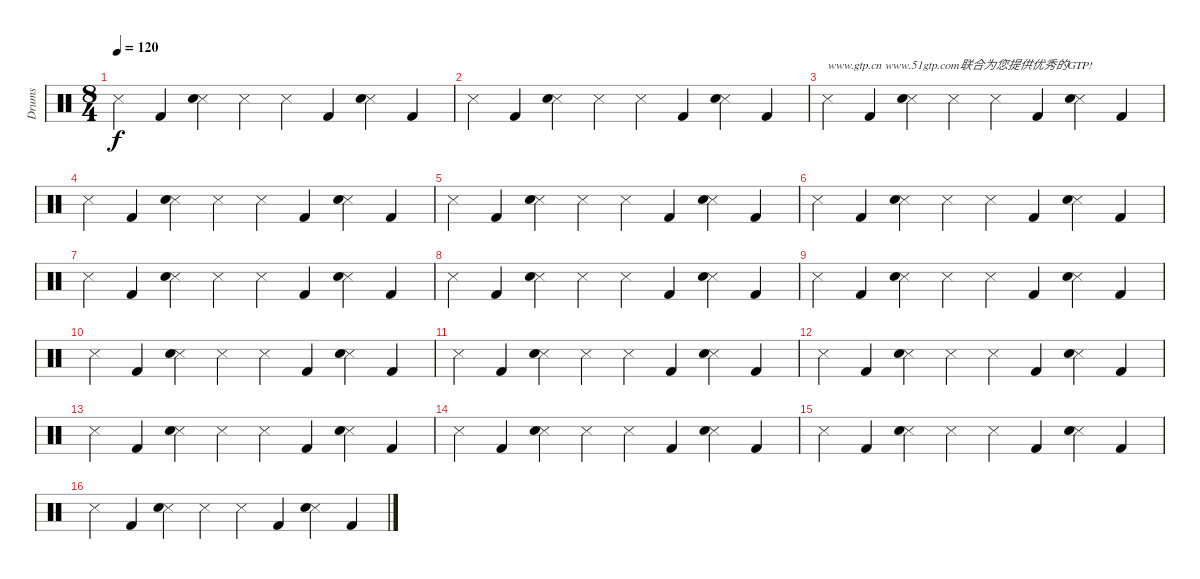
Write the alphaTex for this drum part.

\track ("Drums" "Drums") {instrument percussion}
\staff {score}
\articulation defaults
\ts (8 4)
\tempo 120
\clef neutral
\ks c "Metronome (hit)".4{dy f} "Kick (hit) 2".4
("Metronome (hit)" "Snare (hit) 2").4 "Metronome (hit)".4 "Metronome (hit)".4 "Kick (hit) 2".4 ("Metronome (hit)" "Snare (hit) 2").4 "Kick (hit) 2".4 |
"Metronome (hit)".4 "Kick (hit) 2".4 ("Metronome (hit)" "Snare (hit) 2").4 "Metronome (hit)".4 "Metronome (hit)".4 "Kick (hit) 2".4 ("Metronome (hit)" "Snare (hit) 2").4 "Kick (hit) 2".4 |
"Metronome (hit)".4{txt "www.gtp.cn www.51gtp.com联合为您提供优秀的GTP!"} "Kick (hit) 2".4 ("Metronome (hit)" "Snare (hit) 2").4 "Metronome (hit)".4 "Metronome (hit)".4 "Kick (hit) 2".4 ("Metronome (hit)" "Snare (hit) 2").4 "Kick (hit) 2".4 |
"Metronome (hit)".4 "Kick (hit) 2".4 ("Metronome (hit)" "Snare (hit) 2").4 "Metronome (hit)".4 "Metronome (hit)".4 "Kick (hit) 2".4 ("Metronome (hit)" "Snare (hit) 2").4 "Kick (hit) 2".4 |
"Metronome (hit)".4 "Kick (hit) 2".4 ("Metronome (hit)" "Snare (hit) 2").4 "Metronome (hit)".4 "Metronome (hit)".4 "Kick (hit) 2".4 ("Metronome (hit)" "Snare (hit) 2").4 "Kick (hit) 2".4 |
"Metronome (hit)".4 "Kick (hit) 2".4 ("Metronome (hit)" "Snare (hit) 2").4 "Metronome (hit)".4 "Metronome (hit)".4 "Kick (hit) 2".4 ("Metronome (hit)" "Snare (hit) 2").4 "Kick (hit) 2".4 |
"Metronome (hit)".4 "Kick (hit) 2".4 ("Metronome (hit)" "Snare (hit) 2").4 "Metronome (hit)".4 "Metronome (hit)".4 "Kick (hit) 2".4 ("Metronome (hit)" "Snare (hit) 2").4 "Kick (hit) 2".4 |
"Metronome (hit)".4 "Kick (hit) 2".4 ("Metronome (hit)" "Snare (hit) 2").4 "Metronome (hit)".4 "Metronome (hit)".4 "Kick (hit) 2".4 ("Metronome (hit)" "Snare (hit) 2").4 "Kick (hit) 2".4 |
"Metronome (hit)".4 "Kick (hit) 2".4 ("Metronome (hit)" "Snare (hit) 2").4 "Metronome (hit)".4 "Metronome (hit)".4 "Kick (hit) 2".4 ("Metronome (hit)" "Snare (hit) 2").4 "Kick (hit) 2".4 |
"Metronome (hit)".4 "Kick (hit) 2".4 ("Metronome (hit)" "Snare (hit) 2").4 "Metronome (hit)".4 "Metronome (hit)".4 "Kick (hit) 2".4 ("Metronome (hit)" "Snare (hit) 2").4 "Kick (hit) 2".4 |
"Metronome (hit)".4 "Kick (hit) 2".4 ("Metronome (hit)" "Snare (hit) 2").4 "Metronome (hit)".4 "Metronome (hit)".4 "Kick (hit) 2".4 ("Metronome (hit)" "Snare (hit) 2").4 "Kick (hit) 2".4 |
"Metronome (hit)".4 "Kick (hit) 2".4 ("Metronome (hit)" "Snare (hit) 2").4 "Metronome (hit)".4 "Metronome (hit)".4 "Kick (hit) 2".4 ("Metronome (hit)" "Snare (hit) 2").4 "Kick (hit) 2".4 |
"Metronome (hit)".4 "Kick (hit) 2".4 ("Metronome (hit)" "Snare (hit) 2").4 "Metronome (hit)".4 "Metronome (hit)".4 "Kick (hit) 2".4 ("Metronome (hit)" "Snare (hit) 2").4 "Kick (hit) 2".4 |
"Metronome (hit)".4 "Kick (hit) 2".4 ("Metronome (hit)" "Snare (hit) 2").4 "Metronome (hit)".4 "Metronome (hit)".4 "Kick (hit) 2".4 ("Metronome (hit)" "Snare (hit) 2").4 "Kick (hit) 2".4 |
"Metronome (hit)".4 "Kick (hit) 2".4 ("Metronome (hit)" "Snare (hit) 2").4 "Metronome (hit)".4 "Metronome (hit)".4 "Kick (hit) 2".4 ("Metronome (hit)" "Snare (hit) 2").4 "Kick (hit) 2".4 |
"Metronome (hit)".4 "Kick (hit) 2".4 ("Metronome (hit)" "Snare (hit) 2").4 "Metronome (hit)".4 "Metronome (hit)".4 "Kick (hit) 2".4 ("Metronome (hit)" "Snare (hit) 2").4 "Kick (hit) 2".4
